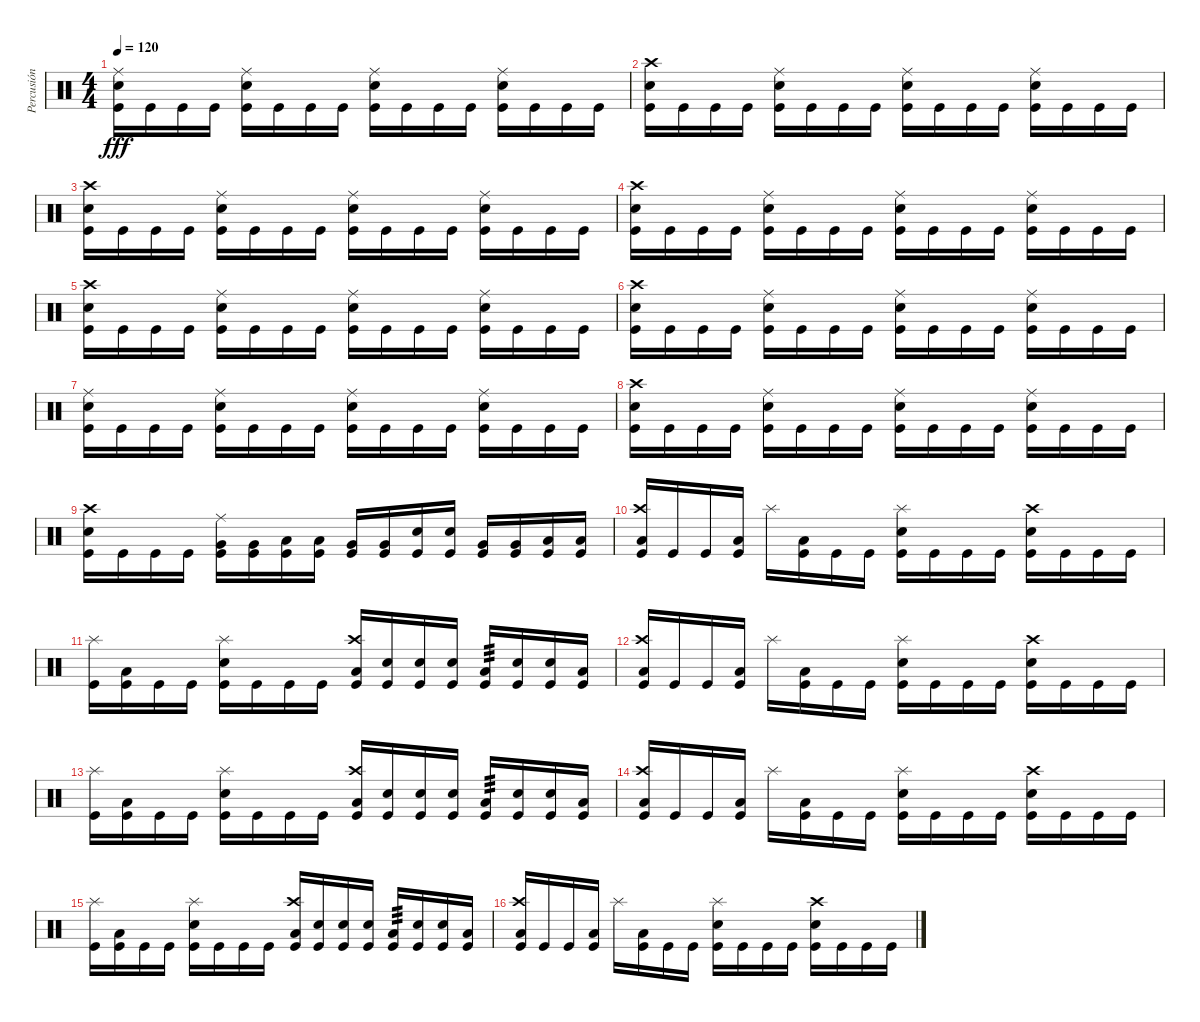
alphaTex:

\track ("Percusión" "Percusión") {instrument percussion}
\staff {score}
\articulation defaults
\ts (4 4)
\tempo 120
\clef neutral
\ks c
("Ride (middle)" "Snare (hit) 2" "Kick (hit)").16{dy fff} "Kick (hit)".16 "Kick (hit)".16 "Kick (hit)".16 ("Ride (middle)" "Snare (hit) 2" "Kick (hit)").16 "Kick (hit)".16 "Kick (hit)".16 "Kick (hit)".16 ("Ride (middle)" "Snare (hit) 2" "Kick (hit)").16 "Kick (hit)".16 "Kick (hit)".16 "Kick (hit)".16 ("Ride (middle)" "Snare (hit) 2" "Kick (hit)").16 "Kick (hit)".16 "Kick (hit)".16 "Kick (hit)".16 |
("Crash high (hit)" "Snare (hit) 2" "Kick (hit)").16 "Kick (hit)".16 "Kick (hit)".16 "Kick (hit)".16 ("Ride (middle)" "Snare (hit) 2" "Kick (hit)").16 "Kick (hit)".16 "Kick (hit)".16 "Kick (hit)".16 ("Ride (middle)" "Snare (hit) 2" "Kick (hit)").16 "Kick (hit)".16 "Kick (hit)".16 "Kick (hit)".16 ("Ride (middle)" "Snare (hit) 2" "Kick (hit)").16 "Kick (hit)".16 "Kick (hit)".16 "Kick (hit)".16 |
("Crash high (hit)" "Snare (hit) 2" "Kick (hit)").16 "Kick (hit)".16 "Kick (hit)".16 "Kick (hit)".16 ("Ride (middle)" "Snare (hit) 2" "Kick (hit)").16 "Kick (hit)".16 "Kick (hit)".16 "Kick (hit)".16 ("Ride (middle)" "Snare (hit) 2" "Kick (hit)").16 "Kick (hit)".16 "Kick (hit)".16 "Kick (hit)".16 ("Ride (middle)" "Snare (hit) 2" "Kick (hit)").16 "Kick (hit)".16 "Kick (hit)".16 "Kick (hit)".16 |
("Crash high (hit)" "Snare (hit) 2" "Kick (hit)").16 "Kick (hit)".16 "Kick (hit)".16 "Kick (hit)".16 ("Ride (middle)" "Snare (hit) 2" "Kick (hit)").16 "Kick (hit)".16 "Kick (hit)".16 "Kick (hit)".16 ("Ride (middle)" "Snare (hit) 2" "Kick (hit)").16 "Kick (hit)".16 "Kick (hit)".16 "Kick (hit)".16 ("Ride (middle)" "Snare (hit) 2" "Kick (hit)").16 "Kick (hit)".16 "Kick (hit)".16 "Kick (hit)".16 |
("Crash high (hit)" "Snare (hit) 2" "Kick (hit)").16 "Kick (hit)".16 "Kick (hit)".16 "Kick (hit)".16 ("Ride (middle)" "Snare (hit) 2" "Kick (hit)").16 "Kick (hit)".16 "Kick (hit)".16 "Kick (hit)".16 ("Ride (middle)" "Snare (hit) 2" "Kick (hit)").16 "Kick (hit)".16 "Kick (hit)".16 "Kick (hit)".16 ("Ride (middle)" "Snare (hit) 2" "Kick (hit)").16 "Kick (hit)".16 "Kick (hit)".16 "Kick (hit)".16 |
("Crash high (hit)" "Snare (hit) 2" "Kick (hit)").16 "Kick (hit)".16 "Kick (hit)".16 "Kick (hit)".16 ("Ride (middle)" "Snare (hit) 2" "Kick (hit)").16 "Kick (hit)".16 "Kick (hit)".16 "Kick (hit)".16 ("Ride (middle)" "Snare (hit) 2" "Kick (hit)").16 "Kick (hit)".16 "Kick (hit)".16 "Kick (hit)".16 ("Ride (middle)" "Snare (hit) 2" "Kick (hit)").16 "Kick (hit)".16 "Kick (hit)".16 "Kick (hit)".16 |
("Ride (middle)" "Snare (hit) 2" "Kick (hit)").16 "Kick (hit)".16 "Kick (hit)".16 "Kick (hit)".16 ("Ride (middle)" "Snare (hit) 2" "Kick (hit)").16 "Kick (hit)".16 "Kick (hit)".16 "Kick (hit)".16 ("Ride (middle)" "Snare (hit) 2" "Kick (hit)").16 "Kick (hit)".16 "Kick (hit)".16 "Kick (hit)".16 ("Ride (middle)" "Snare (hit) 2" "Kick (hit)").16 "Kick (hit)".16 "Kick (hit)".16 "Kick (hit)".16 |
("Crash high (hit)" "Snare (hit) 2" "Kick (hit)").16 "Kick (hit)".16 "Kick (hit)".16 "Kick (hit)".16 ("Ride (middle)" "Snare (hit) 2" "Kick (hit)").16 "Kick (hit)".16 "Kick (hit)".16 "Kick (hit)".16 ("Ride (middle)" "Snare (hit) 2" "Kick (hit)").16 "Kick (hit)".16 "Kick (hit)".16 "Kick (hit)".16 ("Ride (middle)" "Snare (hit) 2" "Kick (hit)").16 "Kick (hit)".16 "Kick (hit)".16 "Kick (hit)".16 |
("Crash high (hit)" "Snare (hit) 2" "Kick (hit)").16 "Kick (hit)".16 "Kick (hit)".16 "Kick (hit)".16 ("Ride (middle)" "Very Low Tom (hit)" "Kick (hit)").16 ("Very Low Tom (hit)" "Kick (hit)").16 ("Low Floor Tom (hit)" "Kick (hit)").16 ("Low Floor Tom (hit)" "Kick (hit)").16 ("Very Low Tom (hit)" "Kick (hit)").16 ("Very Low Tom (hit)" "Kick (hit)").16 ("Snare (hit) 2" "Kick (hit)").16 ("Snare (hit) 2" "Kick (hit)").16 ("Very Low Tom (hit)" "Kick (hit)").16 ("Very Low Tom (hit)" "Kick (hit)").16 ("Low Floor Tom (hit)" "Kick (hit)").16 ("Low Floor Tom (hit)" "Kick (hit)").16 |
("Crash high (hit)" "Low Floor Tom (hit)" "Kick (hit)").16 "Kick (hit)".16 "Kick (hit)".16 ("Low Floor Tom (hit)" "Kick (hit)").16 "Splash (hit)".16 ("Low Floor Tom (hit)" "Kick (hit)").16 "Kick (hit)".16 "Kick (hit)".16 ("Splash (hit)" "Snare (hit) 2" "Kick (hit)").16 "Kick (hit)".16 "Kick (hit)".16 "Kick (hit)".16 ("Crash high (hit)" "Snare (hit) 2" "Kick (hit)").16 "Kick (hit)".16 "Kick (hit)".16 "Kick (hit)".16 |
("Splash (hit)" "Kick (hit)").16 ("Low Floor Tom (hit)" "Kick (hit)").16 "Kick (hit)".16 "Kick (hit)".16 ("Splash (hit)" "Snare (hit) 2" "Kick (hit)").16 "Kick (hit)".16 "Kick (hit)".16 "Kick (hit)".16 ("Crash high (hit)" "Low Floor Tom (hit)" "Kick (hit)").16 ("Snare (hit) 2" "Kick (hit)").16 ("Snare (hit) 2" "Kick (hit)").16 ("Snare (hit) 2" "Kick (hit)").16 ("Low Floor Tom (hit)" "Kick (hit)").16{tp 3} ("Snare (hit) 2" "Kick (hit)").16 ("Snare (hit) 2" "Kick (hit)").16 ("Low Floor Tom (hit)" "Kick (hit)").16 |
("Crash high (hit)" "Low Floor Tom (hit)" "Kick (hit)").16 "Kick (hit)".16 "Kick (hit)".16 ("Low Floor Tom (hit)" "Kick (hit)").16 "Splash (hit)".16 ("Low Floor Tom (hit)" "Kick (hit)").16 "Kick (hit)".16 "Kick (hit)".16 ("Splash (hit)" "Snare (hit) 2" "Kick (hit)").16 "Kick (hit)".16 "Kick (hit)".16 "Kick (hit)".16 ("Crash high (hit)" "Snare (hit) 2" "Kick (hit)").16 "Kick (hit)".16 "Kick (hit)".16 "Kick (hit)".16 |
("Splash (hit)" "Kick (hit)").16 ("Low Floor Tom (hit)" "Kick (hit)").16 "Kick (hit)".16 "Kick (hit)".16 ("Splash (hit)" "Snare (hit) 2" "Kick (hit)").16 "Kick (hit)".16 "Kick (hit)".16 "Kick (hit)".16 ("Crash high (hit)" "Low Floor Tom (hit)" "Kick (hit)").16 ("Snare (hit) 2" "Kick (hit)").16 ("Snare (hit) 2" "Kick (hit)").16 ("Snare (hit) 2" "Kick (hit)").16 ("Low Floor Tom (hit)" "Kick (hit)").16{tp 3} ("Snare (hit) 2" "Kick (hit)").16 ("Snare (hit) 2" "Kick (hit)").16 ("Low Floor Tom (hit)" "Kick (hit)").16 |
("Crash high (hit)" "Low Floor Tom (hit)" "Kick (hit)").16 "Kick (hit)".16 "Kick (hit)".16 ("Low Floor Tom (hit)" "Kick (hit)").16 "Splash (hit)".16 ("Low Floor Tom (hit)" "Kick (hit)").16 "Kick (hit)".16 "Kick (hit)".16 ("Splash (hit)" "Snare (hit) 2" "Kick (hit)").16 "Kick (hit)".16 "Kick (hit)".16 "Kick (hit)".16 ("Crash high (hit)" "Snare (hit) 2" "Kick (hit)").16 "Kick (hit)".16 "Kick (hit)".16 "Kick (hit)".16 |
("Splash (hit)" "Kick (hit)").16 ("Low Floor Tom (hit)" "Kick (hit)").16 "Kick (hit)".16 "Kick (hit)".16 ("Splash (hit)" "Snare (hit) 2" "Kick (hit)").16 "Kick (hit)".16 "Kick (hit)".16 "Kick (hit)".16 ("Crash high (hit)" "Low Floor Tom (hit)" "Kick (hit)").16 ("Snare (hit) 2" "Kick (hit)").16 ("Snare (hit) 2" "Kick (hit)").16 ("Snare (hit) 2" "Kick (hit)").16 ("Low Floor Tom (hit)" "Kick (hit)").16{tp 3} ("Snare (hit) 2" "Kick (hit)").16 ("Snare (hit) 2" "Kick (hit)").16 ("Low Floor Tom (hit)" "Kick (hit)").16 |
("Crash high (hit)" "Low Floor Tom (hit)" "Kick (hit)").16 "Kick (hit)".16 "Kick (hit)".16 ("Low Floor Tom (hit)" "Kick (hit)").16 "Splash (hit)".16 ("Low Floor Tom (hit)" "Kick (hit)").16 "Kick (hit)".16 "Kick (hit)".16 ("Splash (hit)" "Snare (hit) 2" "Kick (hit)").16 "Kick (hit)".16 "Kick (hit)".16 "Kick (hit)".16 ("Crash high (hit)" "Snare (hit) 2" "Kick (hit)").16 "Kick (hit)".16 "Kick (hit)".16 "Kick (hit)".16
